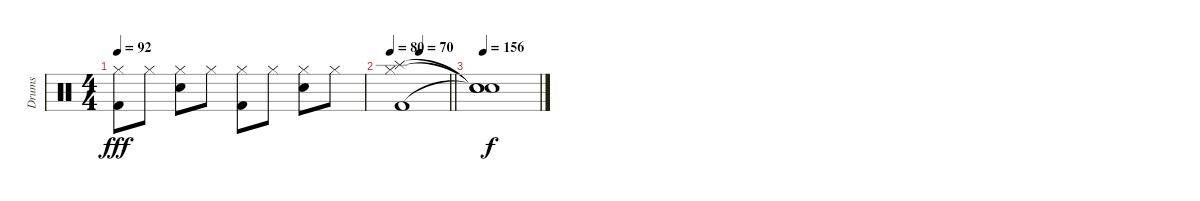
\track ("Drums" "Drums") {instrument percussion}
\staff {score}
\articulation defaults
\ts (4 4)
\tempo 92
\clef neutral
\ks c
("Hi-Hat (closed)" "Kick (hit) 2").8{dy fff} "Hi-Hat (closed)".8 ("Hi-Hat (closed)" "Snare (hit) 2").8 "Hi-Hat (closed)".8 ("Hi-Hat (closed)" "Kick (hit) 2").8 "Hi-Hat (closed)".8 ("Hi-Hat (closed)" "Snare (hit) 2").8 "Hi-Hat (closed)".8 |
\tempo 80
\tempo (70 0.5)
\barLineRight lightlight
("Hi-Hat (closed)" "Kick (hit) 2" "Splash (hit)").1 |
\tempo 156
("Snare (hit)"{t} "Snare (hit)"{t} "Snare (hit)"{t}).1{dy f}
